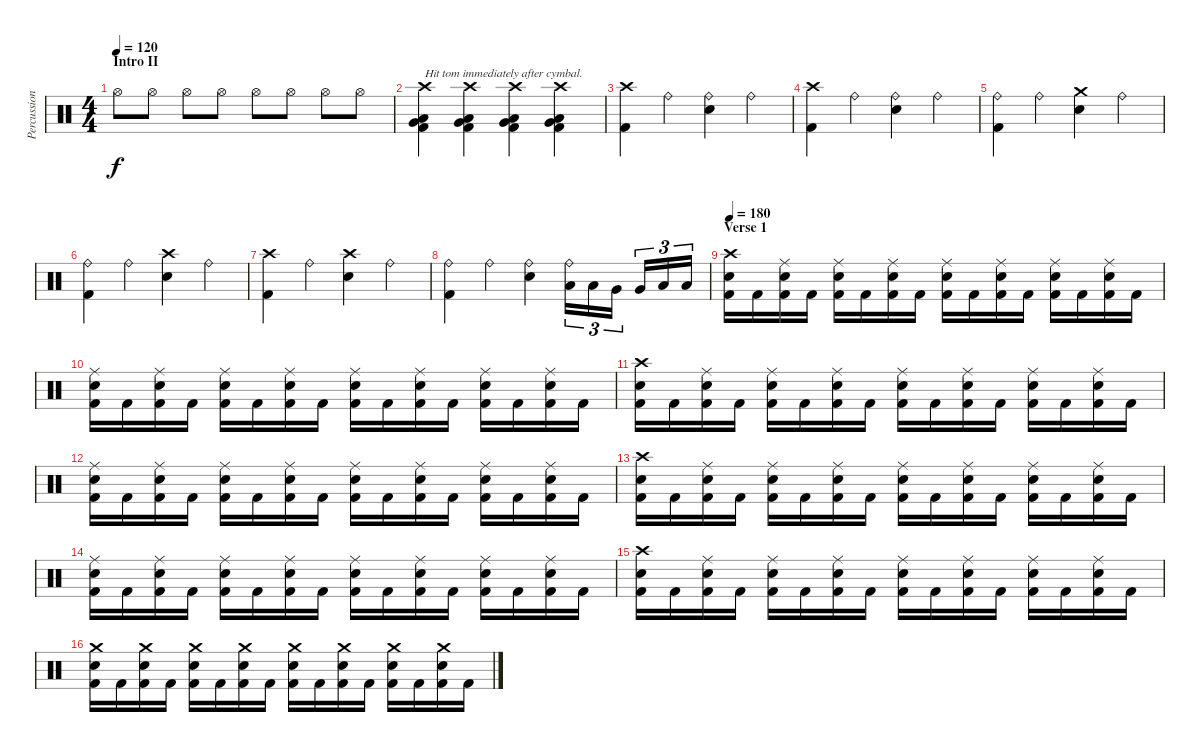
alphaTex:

\track ("Percussion" "Percussion") {instrument percussion}
\staff {score}
\articulation defaults
\ts (4 4)
\section ("" "Intro II")
\tempo 120
\clef neutral
\ks c "Hi-Hat (open)".8{dy f} "Hi-Hat (open)".8 "Hi-Hat (open)".8 "Hi-Hat (open)".8 "Hi-Hat (open)".8 "Hi-Hat (open)".8 "Hi-Hat (open)".8 "Hi-Hat (open)".8
|
("Crash high (hit)" "Very Low Tom (hit)" "Low Floor Tom (hit)" "Kick (hit) 2").4{txt "Hit tom immediately after cymbal."} ("Crash high (hit)" "Very Low Tom (hit)" "Low Floor Tom (hit)" "Kick (hit) 2").4 ("Crash high (hit)" "Very Low Tom (hit)" "Low Floor Tom (hit)" "Kick (hit) 2").4 ("Crash high (hit)" "Very Low Tom (hit)" "Low Floor Tom (hit)" "Kick (hit) 2").4 |
("Crash high (hit)" "Kick (hit) 2").4 "Ride (bell)".4 ("Ride (bell)" "Snare (hit) 2").4 "Ride (bell)".4 |
("Crash high (hit)" "Kick (hit) 2").4 "Ride (bell)".4 ("Ride (bell)" "Snare (hit) 2").4 "Ride (bell)".4 |
("Ride (bell)" "Kick (hit) 2").4 "Ride (bell)".4 ("Crash medium (hit)" "Snare (hit) 2").4 "Ride (bell)".4 |
("Ride (bell)" "Kick (hit) 2").4 "Ride (bell)".4 ("Crash high (hit)" "Snare (hit) 2").4 "Ride (bell)".4 |
("Crash high (hit)" "Kick (hit) 2").4 "Ride (bell)".4 ("Crash high (hit)" "Snare (hit) 2").4 "Ride (bell)".4 |
("Ride (bell)" "Kick (hit) 2").4 "Ride (bell)".4 ("Ride (bell)" "Snare (hit) 2").4 ("Ride (bell)" "Low Tom (hit)").16{tu (3 2)} "Low Tom (hit)".16{tu (3 2)} "Very Low Tom (hit)".16{tu (3 2)} "Very Low Tom (hit)".16{tu (3 2)} "Low Floor Tom (hit)".16{tu (3 2)} "Low Floor Tom (hit)".16{tu (3 2)} |
\section ("" "Verse 1")
\tempo 180
("Crash high (hit)" "Snare (hit) 2" "Kick (hit) 2").16 "Kick (hit) 2".16 ("Ride (middle)" "Snare (hit) 2" "Kick (hit) 2").16 "Kick (hit) 2".16 ("Ride (middle)" "Snare (hit) 2" "Kick (hit) 2").16 "Kick (hit) 2".16 ("Ride (middle)" "Snare (hit) 2" "Kick (hit) 2").16 "Kick (hit) 2".16 ("Ride (middle)" "Snare (hit) 2" "Kick (hit) 2").16 "Kick (hit) 2".16 ("Ride (middle)" "Snare (hit) 2" "Kick (hit) 2").16 "Kick (hit) 2".16 ("Ride (middle)" "Snare (hit) 2" "Kick (hit) 2").16 "Kick (hit) 2".16 ("Ride (middle)" "Snare (hit) 2" "Kick (hit) 2").16 "Kick (hit) 2".16 |
("Ride (middle)" "Snare (hit) 2" "Kick (hit) 2").16 "Kick (hit) 2".16 ("Ride (middle)" "Snare (hit) 2" "Kick (hit) 2").16 "Kick (hit) 2".16 ("Ride (middle)" "Snare (hit) 2" "Kick (hit) 2").16 "Kick (hit) 2".16 ("Ride (middle)" "Snare (hit) 2" "Kick (hit) 2").16 "Kick (hit) 2".16 ("Ride (middle)" "Snare (hit) 2" "Kick (hit) 2").16 "Kick (hit) 2".16 ("Ride (middle)" "Snare (hit) 2" "Kick (hit) 2").16 "Kick (hit) 2".16 ("Ride (middle)" "Snare (hit) 2" "Kick (hit) 2").16 "Kick (hit) 2".16 ("Ride (middle)" "Snare (hit) 2" "Kick (hit) 2").16 "Kick (hit) 2".16 |
("Crash high (hit)" "Snare (hit) 2" "Kick (hit) 2").16 "Kick (hit) 2".16 ("Ride (middle)" "Snare (hit) 2" "Kick (hit) 2").16 "Kick (hit) 2".16 ("Ride (middle)" "Snare (hit) 2" "Kick (hit) 2").16 "Kick (hit) 2".16 ("Ride (middle)" "Snare (hit) 2" "Kick (hit) 2").16 "Kick (hit) 2".16 ("Ride (middle)" "Snare (hit) 2" "Kick (hit) 2").16 "Kick (hit) 2".16 ("Ride (middle)" "Snare (hit) 2" "Kick (hit) 2").16 "Kick (hit) 2".16 ("Ride (middle)" "Snare (hit) 2" "Kick (hit) 2").16 "Kick (hit) 2".16 ("Ride (middle)" "Snare (hit) 2" "Kick (hit) 2").16 "Kick (hit) 2".16 |
("Ride (middle)" "Snare (hit) 2" "Kick (hit) 2").16 "Kick (hit) 2".16 ("Ride (middle)" "Snare (hit) 2" "Kick (hit) 2").16 "Kick (hit) 2".16 ("Ride (middle)" "Snare (hit) 2" "Kick (hit) 2").16 "Kick (hit) 2".16 ("Ride (middle)" "Snare (hit) 2" "Kick (hit) 2").16 "Kick (hit) 2".16 ("Ride (middle)" "Snare (hit) 2" "Kick (hit) 2").16 "Kick (hit) 2".16 ("Ride (middle)" "Snare (hit) 2" "Kick (hit) 2").16 "Kick (hit) 2".16 ("Ride (middle)" "Snare (hit) 2" "Kick (hit) 2").16 "Kick (hit) 2".16 ("Ride (middle)" "Snare (hit) 2" "Kick (hit) 2").16 "Kick (hit) 2".16 |
("Crash high (hit)" "Snare (hit) 2" "Kick (hit) 2").16 "Kick (hit) 2".16 ("Ride (middle)" "Snare (hit) 2" "Kick (hit) 2").16 "Kick (hit) 2".16 ("Ride (middle)" "Snare (hit) 2" "Kick (hit) 2").16 "Kick (hit) 2".16 ("Ride (middle)" "Snare (hit) 2" "Kick (hit) 2").16 "Kick (hit) 2".16 ("Ride (middle)" "Snare (hit) 2" "Kick (hit) 2").16 "Kick (hit) 2".16 ("Ride (middle)" "Snare (hit) 2" "Kick (hit) 2").16 "Kick (hit) 2".16 ("Ride (middle)" "Snare (hit) 2" "Kick (hit) 2").16 "Kick (hit) 2".16 ("Ride (middle)" "Snare (hit) 2" "Kick (hit) 2").16 "Kick (hit) 2".16 |
("Ride (middle)" "Snare (hit) 2" "Kick (hit) 2").16 "Kick (hit) 2".16 ("Ride (middle)" "Snare (hit) 2" "Kick (hit) 2").16 "Kick (hit) 2".16 ("Ride (middle)" "Snare (hit) 2" "Kick (hit) 2").16 "Kick (hit) 2".16 ("Ride (middle)" "Snare (hit) 2" "Kick (hit) 2").16 "Kick (hit) 2".16 ("Ride (middle)" "Snare (hit) 2" "Kick (hit) 2").16 "Kick (hit) 2".16 ("Ride (middle)" "Snare (hit) 2" "Kick (hit) 2").16 "Kick (hit) 2".16 ("Ride (middle)" "Snare (hit) 2" "Kick (hit) 2").16 "Kick (hit) 2".16 ("Ride (middle)" "Snare (hit) 2" "Kick (hit) 2").16 "Kick (hit) 2".16 |
("Crash high (hit)" "Snare (hit) 2" "Kick (hit) 2").16 "Kick (hit) 2".16 ("Ride (middle)" "Snare (hit) 2" "Kick (hit) 2").16 "Kick (hit) 2".16 ("Ride (middle)" "Snare (hit) 2" "Kick (hit) 2").16 "Kick (hit) 2".16 ("Ride (middle)" "Snare (hit) 2" "Kick (hit) 2").16 "Kick (hit) 2".16 ("Ride (middle)" "Snare (hit) 2" "Kick (hit) 2").16 "Kick (hit) 2".16 ("Ride (middle)" "Snare (hit) 2" "Kick (hit) 2").16 "Kick (hit) 2".16 ("Ride (middle)" "Snare (hit) 2" "Kick (hit) 2").16 "Kick (hit) 2".16 ("Ride (middle)" "Snare (hit) 2" "Kick (hit) 2").16 "Kick (hit) 2".16 |
("Crash medium (hit)" "Snare (hit) 2" "Kick (hit) 2").16 "Kick (hit) 2".16 ("Crash medium (hit)" "Snare (hit) 2" "Kick (hit) 2").16 "Kick (hit) 2".16 ("Crash medium (hit)" "Snare (hit) 2" "Kick (hit) 2").16 "Kick (hit) 2".16 ("Crash medium (hit)" "Snare (hit) 2" "Kick (hit) 2").16 "Kick (hit) 2".16 ("Crash medium (hit)" "Snare (hit) 2" "Kick (hit) 2").16 "Kick (hit) 2".16 ("Crash medium (hit)" "Snare (hit) 2" "Kick (hit) 2").16 "Kick (hit) 2".16 ("Crash medium (hit)" "Snare (hit) 2" "Kick (hit) 2").16 "Kick (hit) 2".16 ("Crash medium (hit)" "Snare (hit) 2" "Kick (hit) 2").16 "Kick (hit) 2".16
